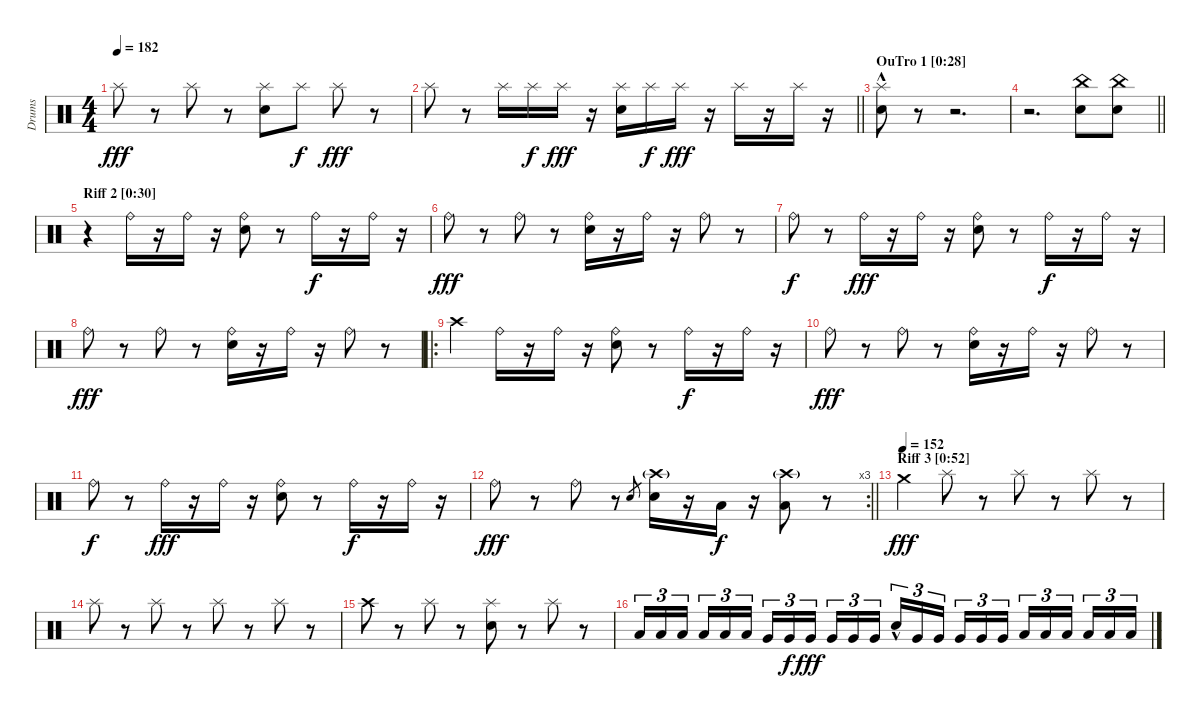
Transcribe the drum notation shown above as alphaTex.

\track ("Drums" "Drums") {instrument percussion}
\staff {score}
\articulation defaults
\ts (4 4)
\tempo 182
\clef neutral
\ks c "Splash (hit)".8{dy fff}
r.8 "Splash (hit)".8 r.8 ("Splash (hit)" "Electric Snare (hit)").8 "Splash (hit)".8{dy f} "Splash (hit)".8{dy fff} r.8 |
\barLineRight lightlight "Splash (hit)".8
r.8 "Splash (hit)".16 "Splash (hit)".16{dy f} "Splash (hit)".16{dy fff} r.16 ("Splash (hit)" "Electric Snare (hit)").16 "Splash (hit)".16{dy f} "Splash (hit)".16{dy fff} r.16 "Splash (hit)".16 r.16 "Splash (hit)".16 r.16 |
\section ("" "OuTro 1 [0:28]")
("Splash (hit)" "Electric Snare (hit)"{hac}).8 r.8 r.2{d} |
\barLineRight lightlight
r.2{d} ("China (hit)" "Electric Snare (hit)").8 ("China (hit)" "Electric Snare (hit)").8 |
\section ("" "Riff 2 [0:30]")
r.4 "Ride (bell)".16 r.16 "Ride (bell)".16 r.16 ("Ride (bell)" "Electric Snare (hit)").8 r.8 "Ride (bell)".16{dy f} r.16 "Ride (bell)".16 r.16 |
"Ride (bell)".8{dy fff} r.8 "Ride (bell)".8 r.8 ("Ride (bell)" "Electric Snare (hit)").16 r.16 "Ride (bell)".16 r.16 "Ride (bell)".8 r.8 |
"Ride (bell)".8{dy f} r.8 "Ride (bell)".16{dy fff} r.16 "Ride (bell)".16 r.16 ("Ride (bell)" "Electric Snare (hit)").8 r.8 "Ride (bell)".16{dy f} r.16 "Ride (bell)".16 r.16 |
"Ride (bell)".8{dy fff} r.8 "Ride (bell)".8 r.8 ("Ride (bell)" "Electric Snare (hit)").16 r.16 "Ride (bell)".16 r.16 "Ride (bell)".8 r.8 |
\ro "Crash high (hit)".4 "Ride (bell)".16
r.16 "Ride (bell)".16 r.16 ("Ride (bell)" "Electric Snare (hit)").8 r.8 "Ride (bell)".16{dy f} r.16 "Ride (bell)".16 r.16 |
"Ride (bell)".8{dy fff} r.8 "Ride (bell)".8 r.8 ("Ride (bell)" "Electric Snare (hit)").16 r.16 "Ride (bell)".16 r.16 "Ride (bell)".8 r.8 |
"Ride (bell)".8{dy f} r.8 "Ride (bell)".16{dy fff} r.16 "Ride (bell)".16 r.16 ("Ride (bell)" "Electric Snare (hit)").8 r.8 "Ride (bell)".16{dy f} r.16 "Ride (bell)".16 r.16 |
\rc 3
\barLineRight lightlight "Ride (bell)".8{dy fff}
r.8 "Ride (bell)".8 r.8 "Electric Snare (hit)".8{gr} ("Crash high (hit)"{g} "Electric Snare (hit)").16 r.16 "Low Tom (hit)".16{dy f} r.16 ("Crash high (hit)"{g} "Low Floor Tom (hit)").8 r.8 |
\section ("" "Riff 3 [0:52]")
\tempo (152)
"Crash medium (hit)".4{dy fff} "Splash (hit)".8 r.8 "Splash (hit)".8 r.8 "Splash (hit)".8 r.8 |
"Splash (hit)".8 r.8 "Splash (hit)".8 r.8 "Splash (hit)".8 r.8 "Splash (hit)".8 r.8 |
"Crash high (hit)".8 r.8 "Splash (hit)".8 r.8 ("Splash (hit)" "Electric Snare (hit)").8 r.8 "Splash (hit)".8 r.8 |
"Low Tom (hit)".16{tu (3 2)} "Low Tom (hit)".16{tu (3 2)} "Low Tom (hit)".16{tu (3 2) beam splitsecondary} "Low Tom (hit)".16{tu (3 2)} "Low Tom (hit)".16{tu (3 2)} "Low Tom (hit)".16{tu (3 2)} "Very Low Tom (hit)".16{tu (3 2)} "Very Low Tom (hit)".16{tu (3 2) dy f} "Very Low Tom (hit)".16{tu (3 2) dy fff beam splitsecondary} "Very Low Tom (hit)".16{tu (3 2)} "Very Low Tom (hit)".16{tu (3 2)} "Very Low Tom (hit)".16{tu (3 2)} "Electric Snare (hit)"{hac}.16{tu (3 2)} "Very Low Tom (hit)".16{tu (3 2)} "Very Low Tom (hit)".16{tu (3 2) beam splitsecondary} "Very Low Tom (hit)".16{tu (3 2)} "Very Low Tom (hit)".16{tu (3 2)} "Very Low Tom (hit)".16{tu (3 2)} "Low Floor Tom (hit)".16{tu (3 2)} "Low Floor Tom (hit)".16{tu (3 2)} "Low Floor Tom (hit)".16{tu (3 2) beam splitsecondary} "Low Floor Tom (hit)".16{tu (3 2)} "Low Floor Tom (hit)".16{tu (3 2)} "Low Floor Tom (hit)".16{tu (3 2)}
